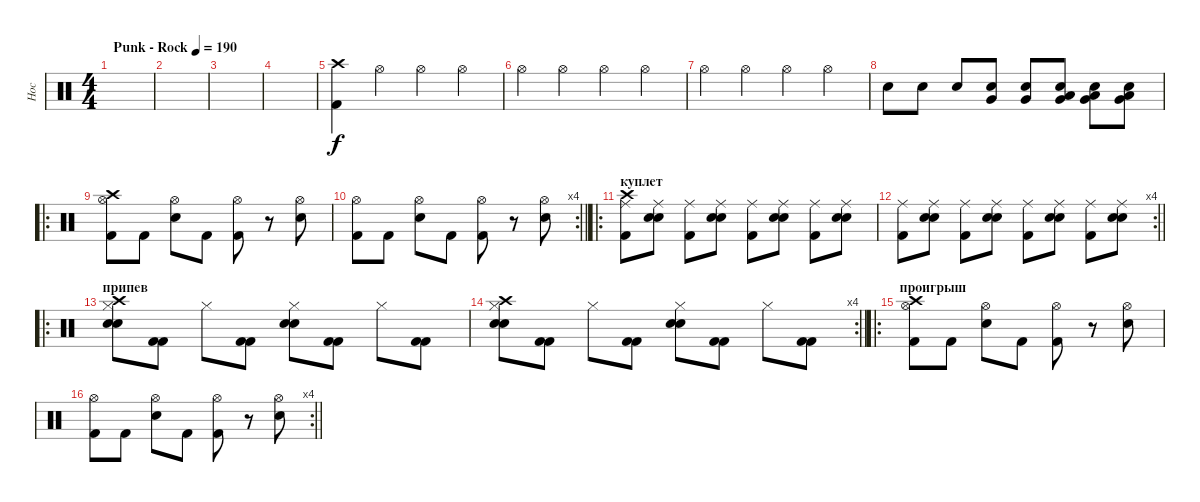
\track ("Нос" "Нос") {instrument percussion}
\staff {score}
\articulation defaults
\ts (4 4)
\tempo (190 "Punk - Rock")
\clef neutral
\ks c
|
|
|
|
("Crash high (hit)" "Kick (hit) 2").4 "Hi-Hat (open)".4 "Hi-Hat (open)".4 "Hi-Hat (open)".4 |
"Hi-Hat (open)".4 "Hi-Hat (open)".4 "Hi-Hat (open)".4 "Hi-Hat (open)".4 |
"Hi-Hat (open)".4 "Hi-Hat (open)".4 "Hi-Hat (open)".4 "Hi-Hat (open)".4 |
"Snare (hit) 2".8 "Snare (hit) 2".8 "Snare (hit) 2".8 ("Very Low Tom (hit)" "Snare (hit) 2").8 ("Very Low Tom (hit)" "Snare (hit) 2").8 ("Very Low Tom (hit)" "Low Floor Tom (hit)" "Snare (hit) 2").8 ("Very Low Tom (hit)" "Low Floor Tom (hit)" "Snare (hit) 2").8 ("Very Low Tom (hit)" "Low Floor Tom (hit)" "Snare (hit) 2").8 |
\ro
("Crash high (hit)" "Kick (hit) 2" "Hi-Hat (open)").8 "Kick (hit) 2".8 ("Snare (hit) 2" "Hi-Hat (open)").8 "Kick (hit) 2".8 ("Kick (hit) 2" "Hi-Hat (open)").8 r.8 ("Snare (hit) 2" "Hi-Hat (open)").8 |
\rc 4
\barLineRight lightlight
("Kick (hit) 2" "Hi-Hat (open)").8 "Kick (hit) 2".8 ("Snare (hit) 2" "Hi-Hat (open)").8 "Kick (hit) 2".8 ("Kick (hit) 2" "Hi-Hat (open)").8 r.8 ("Snare (hit) 2" "Hi-Hat (open)").8 |
\ro
\section ("" "куплет")
("Crash high (hit)" "Ride (middle)" "Kick (hit) 2").8 ("Snare (hit) 2" "Ride (middle)" "Snare (hit) 2").8 ("Ride (middle)" "Kick (hit) 2").8 ("Snare (hit) 2" "Ride (middle)" "Snare (hit) 2").8 ("Ride (middle)" "Kick (hit) 2").8 ("Snare (hit) 2" "Ride (middle)" "Snare (hit) 2").8 ("Ride (middle)" "Kick (hit) 2").8 ("Snare (hit) 2" "Ride (middle)" "Snare (hit) 2").8 |
\rc 4
\barLineRight lightlight
("Ride (middle)" "Kick (hit) 2").8 ("Snare (hit) 2" "Ride (middle)" "Snare (hit) 2").8 ("Ride (middle)" "Kick (hit) 2").8 ("Snare (hit) 2" "Ride (middle)" "Snare (hit) 2").8 ("Ride (middle)" "Kick (hit) 2").8 ("Snare (hit) 2" "Ride (middle)" "Snare (hit) 2").8 ("Ride (middle)" "Kick (hit) 2").8 ("Snare (hit) 2" "Ride (middle)" "Snare (hit) 2").8 |
\ro
\section ("" "припев")
("Hi-Hat (closed)" "Snare (hit) 2" "Crash high (hit)" "Snare (hit) 2").8 ("Kick (hit) 2" "Kick (hit) 2").8 "Hi-Hat (closed)".8 ("Kick (hit) 2" "Kick (hit) 2").8 ("Hi-Hat (closed)" "Snare (hit) 2" "Snare (hit) 2").8 ("Kick (hit) 2" "Kick (hit) 2").8 "Hi-Hat (closed)".8 ("Kick (hit) 2" "Kick (hit) 2").8 |
\rc 4
\barLineRight lightlight
("Hi-Hat (closed)" "Snare (hit) 2" "Crash high (hit)" "Snare (hit) 2").8 ("Kick (hit) 2" "Kick (hit) 2").8 "Hi-Hat (closed)".8 ("Kick (hit) 2" "Kick (hit) 2").8 ("Hi-Hat (closed)" "Snare (hit) 2" "Snare (hit) 2").8 ("Kick (hit) 2" "Kick (hit) 2").8 "Hi-Hat (closed)".8 ("Kick (hit) 2" "Kick (hit) 2").8 |
\ro
\section ("" "проигрыш")
("Crash high (hit)" "Kick (hit) 2" "Hi-Hat (open)").8 "Kick (hit) 2".8 ("Snare (hit) 2" "Hi-Hat (open)").8 "Kick (hit) 2".8 ("Kick (hit) 2" "Hi-Hat (open)").8 r.8 ("Snare (hit) 2" "Hi-Hat (open)").8 |
\rc 4
\barLineRight lightlight
("Kick (hit) 2" "Hi-Hat (open)").8 "Kick (hit) 2".8 ("Snare (hit) 2" "Hi-Hat (open)").8 "Kick (hit) 2".8 ("Kick (hit) 2" "Hi-Hat (open)").8 r.8 ("Snare (hit) 2" "Hi-Hat (open)").8
